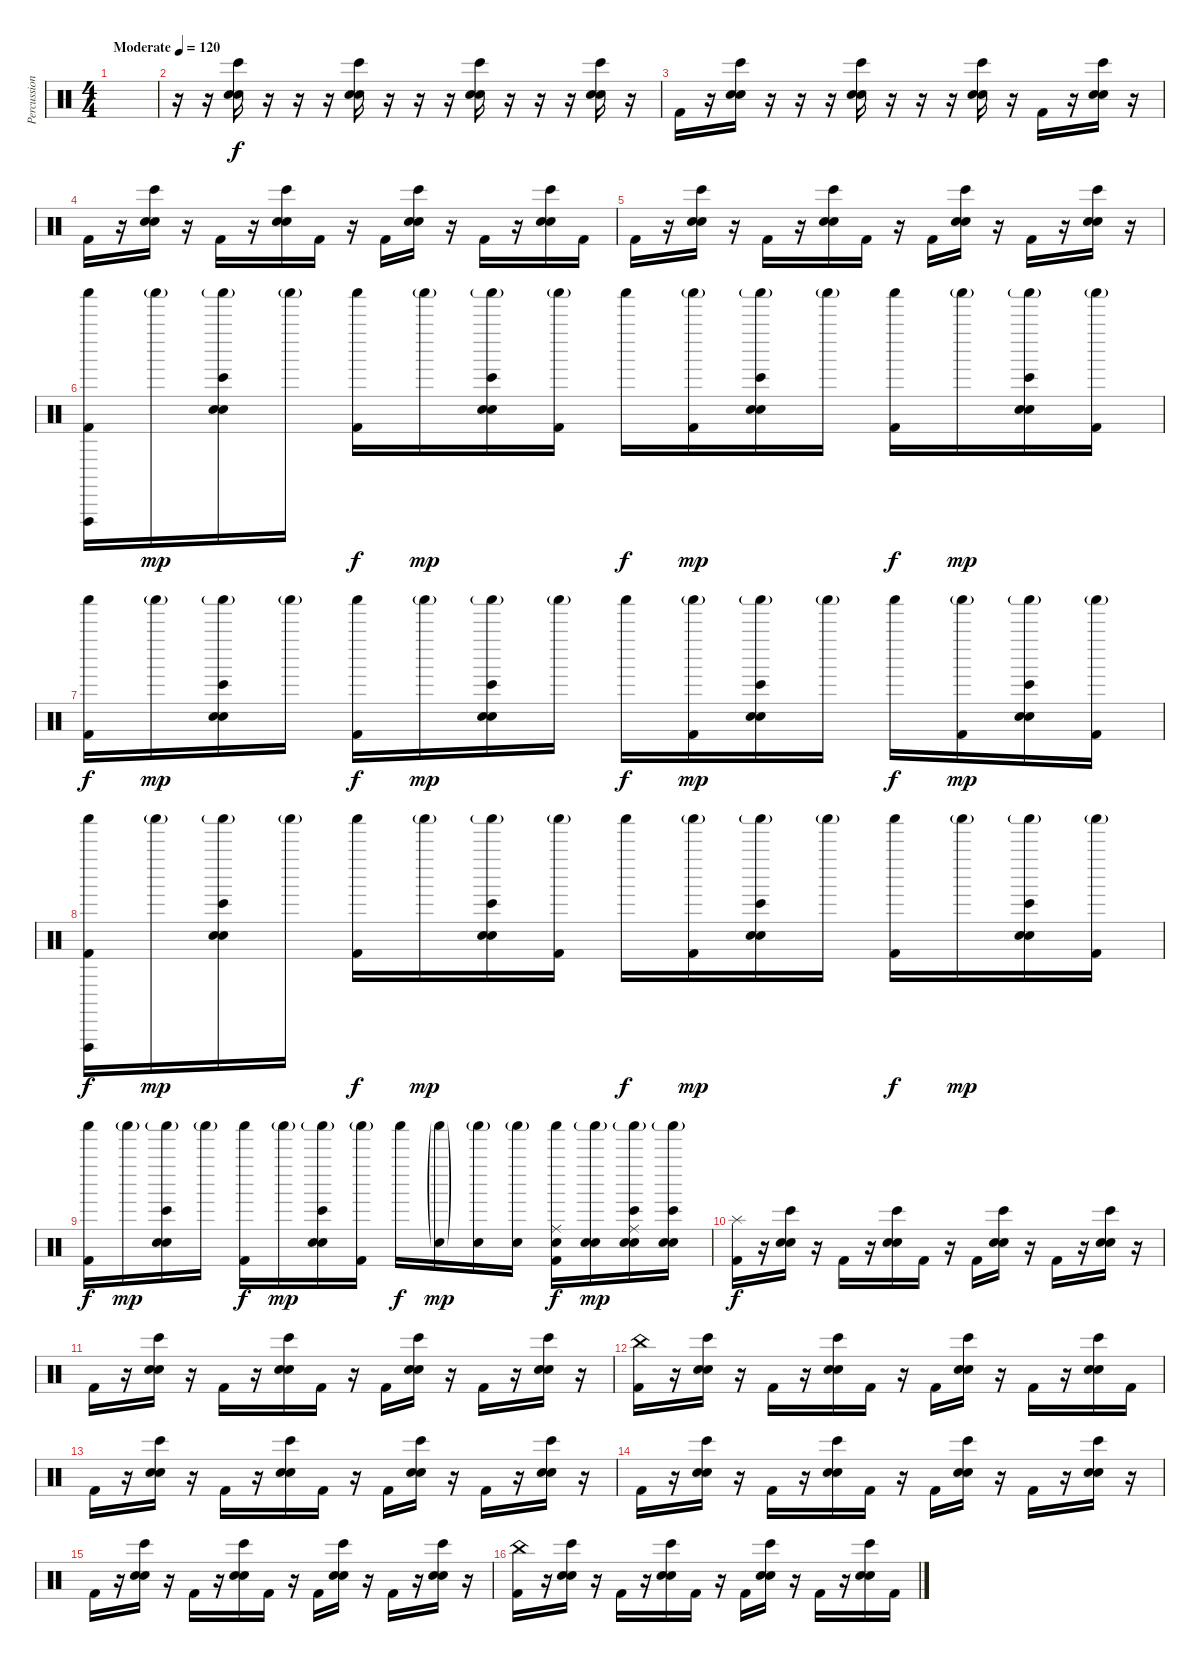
\track ("Percussion" "Percussion") {instrument percussion}
\staff {score}
\articulation defaults
\ts (4 4)
\tempo (120 "Moderate")
\clef neutral
\ks c
|
r.16 r.16 ("Electric Snare (hit)" "Snare (hit) 2" "Bongo High (hit)").16 r.16 r.16 r.16 ("Electric Snare (hit)" "Snare (hit) 2" "Bongo High (hit)").16 r.16 r.16 r.16 ("Electric Snare (hit)" "Snare (hit) 2" "Bongo High (hit)").16 r.16 r.16 r.16 ("Electric Snare (hit)" "Snare (hit) 2" "Bongo High (hit)").16 r.16 |
"Kick (hit) 2".16 r.16 ("Electric Snare (hit)" "Snare (hit) 2" "Bongo High (hit)").16 r.16 r.16 r.16 ("Electric Snare (hit)" "Snare (hit) 2" "Bongo High (hit)").16 r.16 r.16 r.16 ("Electric Snare (hit)" "Snare (hit) 2" "Bongo High (hit)").16 r.16 "Kick (hit) 2".16 r.16 ("Electric Snare (hit)" "Snare (hit) 2" "Bongo High (hit)").16 r.16 |
"Kick (hit) 2".16 r.16 ("Electric Snare (hit)" "Snare (hit) 2" "Bongo High (hit)").16 r.16 "Kick (hit) 2".16 r.16 ("Electric Snare (hit)" "Snare (hit) 2" "Bongo High (hit)").16 "Kick (hit) 2".16 r.16 "Kick (hit) 2".16 ("Electric Snare (hit)" "Snare (hit) 2" "Bongo High (hit)").16 r.16 "Kick (hit) 2".16 r.16 ("Electric Snare (hit)" "Snare (hit) 2" "Bongo High (hit)").16 "Kick (hit) 2".16 |
"Kick (hit) 2".16 r.16 ("Electric Snare (hit)" "Snare (hit) 2" "Bongo High (hit)").16 r.16 "Kick (hit) 2".16 r.16 ("Electric Snare (hit)" "Snare (hit) 2" "Bongo High (hit)").16 "Kick (hit) 2".16 r.16 "Kick (hit) 2".16 ("Electric Snare (hit)" "Snare (hit) 2" "Bongo High (hit)").16 r.16 "Kick (hit) 2".16 r.16 ("Electric Snare (hit)" "Snare (hit) 2" "Bongo High (hit)").16 r.16 |
("Vibraslap (hit)" "Shaker (hit)" "Kick (hit) 2").16 "Shaker (hit)"{g}.16{dy mp} ("Shaker (hit)"{g} "Electric Snare (hit)" "Snare (hit) 2" "Bongo High (hit)").16 "Shaker (hit)"{g}.16 ("Shaker (hit)" "Kick (hit) 2").16{dy f} "Shaker (hit)"{g}.16{dy mp} ("Shaker (hit)"{g} "Electric Snare (hit)" "Snare (hit) 2" "Bongo High (hit)").16 ("Shaker (hit)"{g} "Kick (hit) 2").16 "Shaker (hit)".16{dy f} ("Shaker (hit)"{g} "Kick (hit) 2").16{dy mp} ("Shaker (hit)"{g} "Snare (hit) 2" "Bongo High (hit)" "Electric Snare (hit)").16 "Shaker (hit)"{g}.16 ("Shaker (hit)" "Kick (hit) 2").16{dy f} "Shaker (hit)"{g}.16{dy mp} ("Shaker (hit)"{g} "Snare (hit) 2" "Bongo High (hit)" "Electric Snare (hit)").16 ("Shaker (hit)"{g} "Kick (hit) 2").16 |
("Shaker (hit)" "Kick (hit) 2").16{dy f} "Shaker (hit)"{g}.16{dy mp} ("Shaker (hit)"{g} "Electric Snare (hit)" "Snare (hit) 2" "Bongo High (hit)").16 "Shaker (hit)"{g}.16 ("Shaker (hit)" "Kick (hit) 2").16{dy f} "Shaker (hit)"{g}.16{dy mp} ("Shaker (hit)"{g} "Electric Snare (hit)" "Snare (hit) 2" "Bongo High (hit)").16 "Shaker (hit)"{g}.16 "Shaker (hit)".16{dy f} ("Shaker (hit)"{g} "Kick (hit) 2").16{dy mp} ("Shaker (hit)"{g} "Snare (hit) 2" "Bongo High (hit)" "Electric Snare (hit)").16 "Shaker (hit)"{g}.16 "Shaker (hit)".16{dy f} ("Shaker (hit)"{g} "Kick (hit) 2").16{dy mp} ("Shaker (hit)"{g} "Snare (hit) 2" "Bongo High (hit)" "Electric Snare (hit)").16 ("Shaker (hit)"{g} "Kick (hit) 2").16 |
("Vibraslap (hit)" "Shaker (hit)" "Kick (hit) 2").16{dy f} "Shaker (hit)"{g}.16{dy mp} ("Shaker (hit)"{g} "Electric Snare (hit)" "Snare (hit) 2" "Bongo High (hit)").16 "Shaker (hit)"{g}.16 ("Shaker (hit)" "Kick (hit) 2").16{dy f} "Shaker (hit)"{g}.16{dy mp} ("Shaker (hit)"{g} "Electric Snare (hit)" "Snare (hit) 2" "Bongo High (hit)").16 ("Shaker (hit)"{g} "Kick (hit) 2").16 "Shaker (hit)".16{dy f} ("Shaker (hit)"{g} "Kick (hit) 2").16{dy mp} ("Shaker (hit)"{g} "Snare (hit) 2" "Bongo High (hit)" "Electric Snare (hit)").16 "Shaker (hit)"{g}.16 ("Shaker (hit)" "Kick (hit) 2").16{dy f} "Shaker (hit)"{g}.16{dy mp} ("Shaker (hit)"{g} "Snare (hit) 2" "Bongo High (hit)" "Electric Snare (hit)").16 ("Shaker (hit)"{g} "Kick (hit) 2").16 |
("Shaker (hit)" "Kick (hit) 2").16{dy f} "Shaker (hit)"{g}.16{dy mp} ("Shaker (hit)"{g} "Electric Snare (hit)" "Snare (hit) 2" "Bongo High (hit)").16 "Shaker (hit)"{g}.16 ("Shaker (hit)" "Kick (hit) 2").16{dy f} "Shaker (hit)"{g}.16{dy mp} ("Shaker (hit)"{g} "Electric Snare (hit)" "Snare (hit) 2" "Bongo High (hit)").16 ("Shaker (hit)"{g} "Kick (hit) 2").16 "Shaker (hit)".16{dy f} ("Shaker (hit)"{g} "Electric Snare (hit)"{g}).16{dy mp} ("Shaker (hit)"{g} "Electric Snare (hit)").16 ("Shaker (hit)"{g} "Electric Snare (hit)").16 ("Shaker (hit)" "Kick (hit) 2" "Electric Snare (hit)" "Ride (middle)").16{dy f} ("Shaker (hit)"{g} "Snare (hit) 2" "Electric Snare (hit)").16{dy mp} ("Shaker (hit)"{g} "Bongo High (hit)" "Snare (hit) 2" "Electric Snare (hit)" "Ride (middle)").16 ("Shaker (hit)"{g} "Bongo High (hit)" "Snare (hit) 2" "Electric Snare (hit)").16 |
("Kick (hit) 2" "Splash (hit)").16{dy f} r.16 ("Electric Snare (hit)" "Snare (hit) 2" "Bongo High (hit)").16 r.16 "Kick (hit) 2".16 r.16 ("Electric Snare (hit)" "Snare (hit) 2" "Bongo High (hit)").16 "Kick (hit) 2".16 r.16 "Kick (hit) 2".16 ("Electric Snare (hit)" "Snare (hit) 2" "Bongo High (hit)").16 r.16 "Kick (hit) 2".16 r.16 ("Electric Snare (hit)" "Snare (hit) 2" "Bongo High (hit)").16 r.16 |
"Kick (hit) 2".16 r.16 ("Electric Snare (hit)" "Snare (hit) 2" "Bongo High (hit)").16 r.16 "Kick (hit) 2".16 r.16 ("Electric Snare (hit)" "Snare (hit) 2" "Bongo High (hit)").16 "Kick (hit) 2".16 r.16 "Kick (hit) 2".16 ("Electric Snare (hit)" "Snare (hit) 2" "Bongo High (hit)").16 r.16 "Kick (hit) 2".16 r.16 ("Electric Snare (hit)" "Snare (hit) 2" "Bongo High (hit)").16 r.16 |
("China (hit)" "Kick (hit) 2").16 r.16 ("Electric Snare (hit)" "Snare (hit) 2" "Bongo High (hit)").16 r.16 "Kick (hit) 2".16 r.16 ("Electric Snare (hit)" "Snare (hit) 2" "Bongo High (hit)").16 "Kick (hit) 2".16 r.16 "Kick (hit) 2".16 ("Electric Snare (hit)" "Snare (hit) 2" "Bongo High (hit)").16 r.16 "Kick (hit) 2".16 r.16 ("Electric Snare (hit)" "Snare (hit) 2" "Bongo High (hit)").16 "Kick (hit) 2".16 |
"Kick (hit) 2".16 r.16 ("Electric Snare (hit)" "Snare (hit) 2" "Bongo High (hit)").16 r.16 "Kick (hit) 2".16 r.16 ("Electric Snare (hit)" "Snare (hit) 2" "Bongo High (hit)").16 "Kick (hit) 2".16 r.16 "Kick (hit) 2".16 ("Electric Snare (hit)" "Snare (hit) 2" "Bongo High (hit)").16 r.16 "Kick (hit) 2".16 r.16 ("Electric Snare (hit)" "Snare (hit) 2" "Bongo High (hit)").16 r.16 |
"Kick (hit) 2".16 r.16 ("Electric Snare (hit)" "Snare (hit) 2" "Bongo High (hit)").16 r.16 "Kick (hit) 2".16 r.16 ("Electric Snare (hit)" "Snare (hit) 2" "Bongo High (hit)").16 "Kick (hit) 2".16 r.16 "Kick (hit) 2".16 ("Electric Snare (hit)" "Snare (hit) 2" "Bongo High (hit)").16 r.16 "Kick (hit) 2".16 r.16 ("Electric Snare (hit)" "Snare (hit) 2" "Bongo High (hit)").16 r.16 |
"Kick (hit) 2".16 r.16 ("Electric Snare (hit)" "Snare (hit) 2" "Bongo High (hit)").16 r.16 "Kick (hit) 2".16 r.16 ("Electric Snare (hit)" "Snare (hit) 2" "Bongo High (hit)").16 "Kick (hit) 2".16 r.16 "Kick (hit) 2".16 ("Electric Snare (hit)" "Snare (hit) 2" "Bongo High (hit)").16 r.16 "Kick (hit) 2".16 r.16 ("Electric Snare (hit)" "Snare (hit) 2" "Bongo High (hit)").16 r.16 |
("China (hit)" "Kick (hit) 2").16 r.16 ("Electric Snare (hit)" "Snare (hit) 2" "Bongo High (hit)").16 r.16 "Kick (hit) 2".16 r.16 ("Electric Snare (hit)" "Snare (hit) 2" "Bongo High (hit)").16 "Kick (hit) 2".16 r.16 "Kick (hit) 2".16 ("Electric Snare (hit)" "Snare (hit) 2" "Bongo High (hit)").16 r.16 "Kick (hit) 2".16 r.16 ("Electric Snare (hit)" "Snare (hit) 2" "Bongo High (hit)").16 "Kick (hit) 2".16
